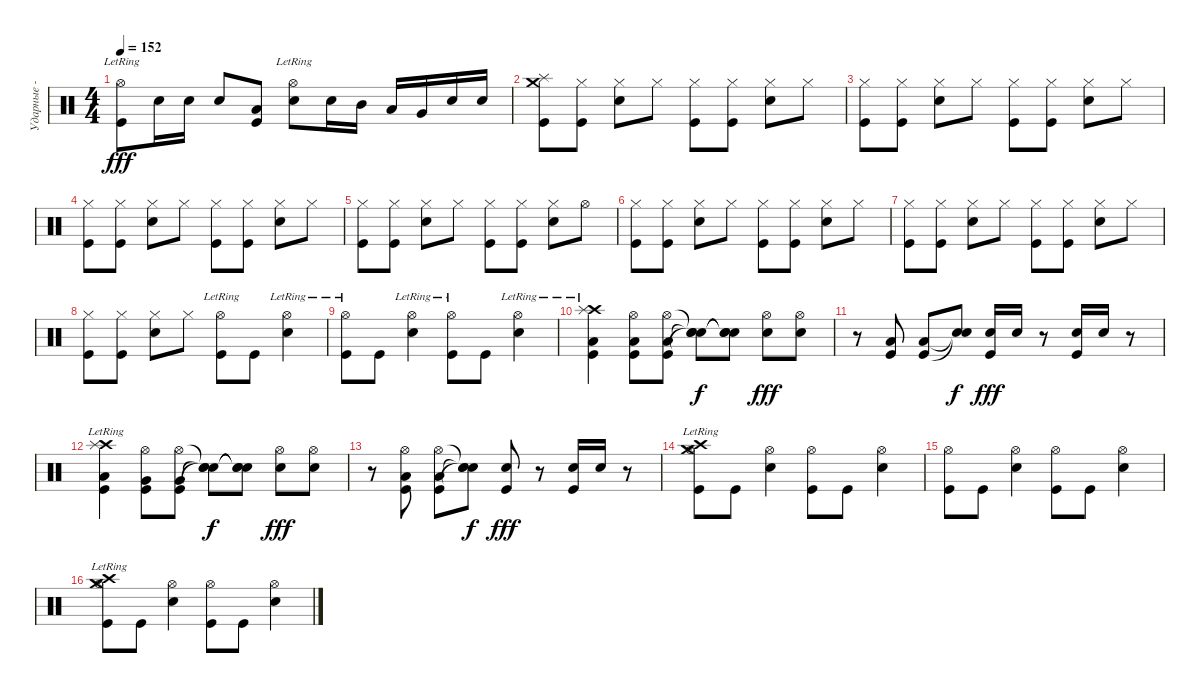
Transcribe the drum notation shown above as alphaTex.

\track ("Ударные - Трэвис" "Ударные - ") {instrument percussion}
\staff {score}
\articulation defaults
\ts (4 4)
\tempo 152
\clef neutral
\ks c
("Hi-Hat (open)"{lr} "Kick (hit)").8{dy fff} "Snare (hit) 2".16 "Snare (hit) 2".16 "Snare (hit) 2".8 ("Low Tom (hit)" "Kick (hit)").8 ("Hi-Hat (open)"{lr} "Snare (hit) 2").8 "Snare (hit) 2".16 "Mid Tom (hit)".16 "Low Tom (hit)".16 "Very Low Tom (hit)".16 "Snare (hit) 2".16 "Snare (hit) 2".16 |
("Splash (hit)" "Crash medium (hit)" "Kick (hit)").8 ("Hi-Hat (closed)" "Kick (hit)").8 ("Hi-Hat (closed)" "Snare (hit) 2").8 "Hi-Hat (closed)".8 ("Hi-Hat (closed)" "Kick (hit)").8 ("Hi-Hat (closed)" "Kick (hit)").8 ("Hi-Hat (closed)" "Snare (hit) 2").8 "Hi-Hat (closed)".8 |
("Hi-Hat (closed)" "Kick (hit)").8 ("Hi-Hat (closed)" "Kick (hit)").8 ("Hi-Hat (closed)" "Snare (hit) 2").8 "Hi-Hat (closed)".8 ("Hi-Hat (closed)" "Kick (hit)").8 ("Hi-Hat (closed)" "Kick (hit)").8 ("Hi-Hat (closed)" "Snare (hit) 2").8 "Hi-Hat (closed)".8 |
("Hi-Hat (closed)" "Kick (hit)").8 ("Hi-Hat (closed)" "Kick (hit)").8 ("Hi-Hat (closed)" "Snare (hit) 2").8 "Hi-Hat (closed)".8 ("Hi-Hat (closed)" "Kick (hit)").8 ("Hi-Hat (closed)" "Kick (hit)").8 ("Hi-Hat (closed)" "Snare (hit) 2").8 "Hi-Hat (closed)".8 |
("Hi-Hat (closed)" "Kick (hit)").8 ("Hi-Hat (closed)" "Kick (hit)").8 ("Hi-Hat (closed)" "Snare (hit) 2").8 "Hi-Hat (closed)".8 ("Hi-Hat (closed)" "Kick (hit)").8 ("Hi-Hat (closed)" "Kick (hit)").8 ("Hi-Hat (closed)" "Snare (hit) 2").8 "Hi-Hat (open)".8 |
("Hi-Hat (closed)" "Kick (hit)").8 ("Hi-Hat (closed)" "Kick (hit)").8 ("Hi-Hat (closed)" "Snare (hit) 2").8 "Hi-Hat (closed)".8 ("Hi-Hat (closed)" "Kick (hit)").8 ("Hi-Hat (closed)" "Kick (hit)").8 ("Hi-Hat (closed)" "Snare (hit) 2").8 "Hi-Hat (closed)".8 |
("Hi-Hat (closed)" "Kick (hit)").8 ("Hi-Hat (closed)" "Kick (hit)").8 ("Hi-Hat (closed)" "Snare (hit) 2").8 "Hi-Hat (closed)".8 ("Hi-Hat (closed)" "Kick (hit)").8 ("Hi-Hat (closed)" "Kick (hit)").8 ("Hi-Hat (closed)" "Snare (hit) 2").8 "Hi-Hat (closed)".8 |
("Hi-Hat (closed)" "Kick (hit)").8 ("Hi-Hat (closed)" "Kick (hit)").8 ("Hi-Hat (closed)" "Snare (hit) 2").8 "Hi-Hat (closed)".8 ("Hi-Hat (open)"{lr} "Kick (hit)").8 "Kick (hit)".8 ("Hi-Hat (open)"{lr} "Snare (hit) 2").4 |
("Hi-Hat (open)"{lr} "Kick (hit)").8 "Kick (hit)".8 ("Hi-Hat (open)"{lr} "Snare (hit) 2").4 ("Hi-Hat (open)"{lr} "Kick (hit)").8 "Kick (hit)".8 ("Hi-Hat (open)"{lr} "Snare (hit) 2").4 |
("Crash high (hit)"{lr} "Splash (hit)"{lr} "Low Tom (hit)"{lr} "Kick (hit)"{lr}).4 ("Hi-Hat (open)" "Low Tom (hit)" "Kick (hit)").8 ("Hi-Hat (open)" "Low Tom (hit)" "Kick (hit)").8 ("Snare (hit)"{t} "Snare (hit)"{t} "Snare (hit)"{t}).8{dy f} ("Snare (hit)"{t} "Snare (hit)"{t} "Snare (hit)"{t}).8 ("Hi-Hat (open)" "Snare (hit) 2").8{dy fff} ("Hi-Hat (open)" "Snare (hit) 2").8 |
r.8 ("Low Tom (hit)" "Kick (hit)").8 ("Low Tom (hit)" "Kick (hit)").8 ("Snare (hit)"{t} "Snare (hit)"{t}).8{dy f} ("Snare (hit) 2" "Kick (hit)").16{dy fff} "Snare (hit) 2".16 r.8 ("Snare (hit) 2" "Kick (hit)").16 "Snare (hit) 2".16 r.8 |
("Crash high (hit)"{lr} "Splash (hit)"{lr} "Low Tom (hit)"{lr} "Kick (hit)"{lr}).4 ("Hi-Hat (open)" "Very Low Tom (hit)" "Kick (hit)").8 ("Hi-Hat (open)" "Very Low Tom (hit)" "Kick (hit)").8 ("Snare (hit)"{t} "Snare (hit)"{t} "Snare (hit)"{t}).8{dy f} ("Snare (hit)"{t} "Snare (hit)"{t} "Snare (hit)"{t}).8 ("Hi-Hat (open)" "Snare (hit) 2").8{dy fff} ("Hi-Hat (open)" "Snare (hit) 2").8 |
r.8 ("Hi-Hat (open)" "Low Tom (hit)" "Kick (hit)").8 ("Hi-Hat (open)" "Low Tom (hit)" "Kick (hit)").8 ("Snare (hit)"{t} "Snare (hit)"{t} "Snare (hit)"{t}).8{dy f} ("Snare (hit) 2" "Kick (hit)").8{dy fff} r.8 ("Snare (hit) 2" "Kick (hit)").16 "Snare (hit) 2".16 r.8 |
("Crash high (hit)"{lr} "Hi-Hat (open)" "Crash medium (hit)"{lr} "Kick (hit)").8 "Kick (hit)".8 ("Hi-Hat (open)" "Snare (hit) 2").4 ("Hi-Hat (open)" "Kick (hit)").8 "Kick (hit)".8 ("Hi-Hat (open)" "Snare (hit) 2").4 |
("Hi-Hat (open)" "Kick (hit)").8 "Kick (hit)".8 ("Hi-Hat (open)" "Snare (hit) 2").4 ("Hi-Hat (open)" "Kick (hit)").8 "Kick (hit)".8 ("Hi-Hat (open)" "Snare (hit) 2").4 |
("Crash high (hit)"{lr} "Hi-Hat (open)" "Crash medium (hit)"{lr} "Kick (hit)").8 "Kick (hit)".8 ("Hi-Hat (open)" "Snare (hit) 2").4 ("Hi-Hat (open)" "Kick (hit)").8 "Kick (hit)".8 ("Hi-Hat (open)" "Snare (hit) 2").4
